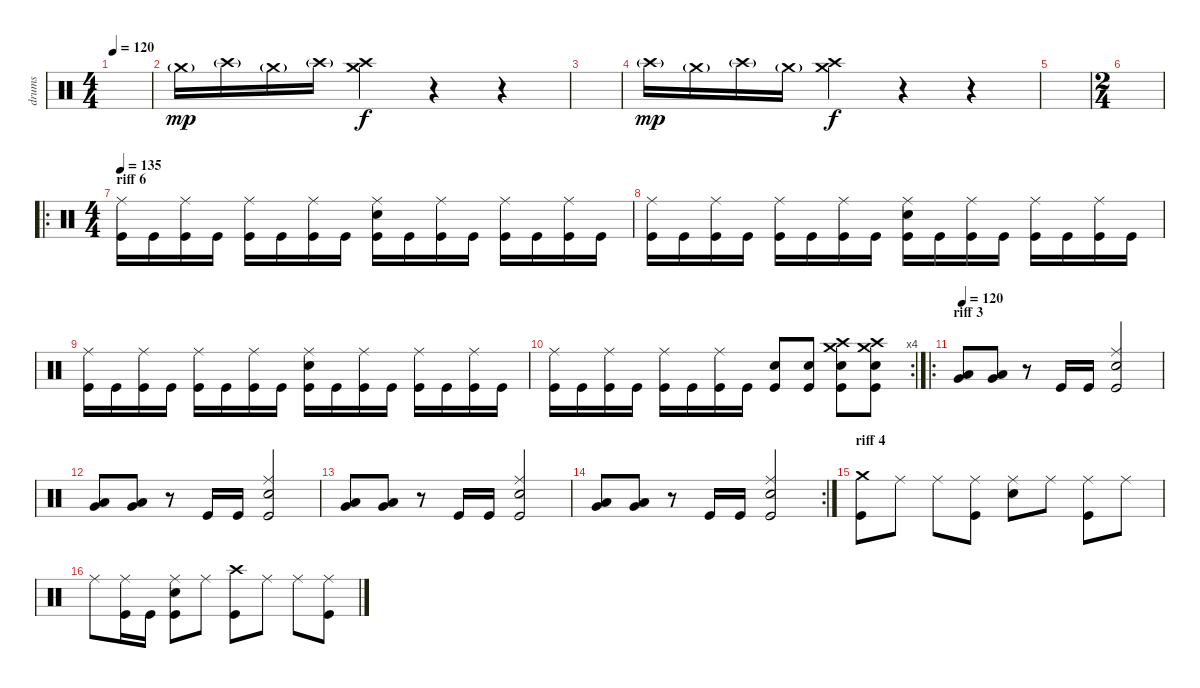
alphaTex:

\track ("drums" "drums") {instrument percussion}
\staff {score}
\articulation defaults
\ts (4 4)
\tempo 120
\clef neutral
\ks c
|
"Crash medium (hit)"{g}.16{dy mp} "Crash high (hit)"{g}.16 "Crash medium (hit)"{g}.16 "Crash high (hit)"{g}.16 ("Crash medium (hit)" "Crash high (hit)").4{dy f} r.4 r.4 |
|
"Crash high (hit)"{g}.16{dy mp} "Crash medium (hit)"{g}.16 "Crash high (hit)"{g}.16 "Crash medium (hit)"{g}.16 ("Crash medium (hit)" "Crash high (hit)").4{dy f} r.4 r.4 |
|
\ts (2 4)
|
\ro
\ts (4 4)
\section ("" "riff 6")
\tempo 135
("Kick (hit)" "Ride (middle)").16 "Kick (hit)".16 ("Kick (hit)" "Ride (middle)").16 "Kick (hit)".16 ("Kick (hit)" "Ride (middle)").16 "Kick (hit)".16 ("Kick (hit)" "Ride (middle)").16 "Kick (hit)".16 ("Kick (hit)" "Snare (hit) 2" "Ride (middle)").16 "Kick (hit)".16 ("Kick (hit)" "Ride (middle)").16 "Kick (hit)".16 ("Kick (hit)" "Ride (middle)").16 "Kick (hit)".16 ("Kick (hit)" "Ride (middle)").16 "Kick (hit)".16 |
("Kick (hit)" "Ride (middle)").16 "Kick (hit)".16 ("Kick (hit)" "Ride (middle)").16 "Kick (hit)".16 ("Kick (hit)" "Ride (middle)").16 "Kick (hit)".16 ("Kick (hit)" "Ride (middle)").16 "Kick (hit)".16 ("Kick (hit)" "Snare (hit) 2" "Ride (middle)").16 "Kick (hit)".16 ("Kick (hit)" "Ride (middle)").16 "Kick (hit)".16 ("Kick (hit)" "Ride (middle)").16 "Kick (hit)".16 ("Kick (hit)" "Ride (middle)").16 "Kick (hit)".16 |
("Kick (hit)" "Ride (middle)").16 "Kick (hit)".16 ("Kick (hit)" "Ride (middle)").16 "Kick (hit)".16 ("Kick (hit)" "Ride (middle)").16 "Kick (hit)".16 ("Kick (hit)" "Ride (middle)").16 "Kick (hit)".16 ("Kick (hit)" "Snare (hit) 2" "Ride (middle)").16 "Kick (hit)".16 ("Kick (hit)" "Ride (middle)").16 "Kick (hit)".16 ("Kick (hit)" "Ride (middle)").16 "Kick (hit)".16 ("Kick (hit)" "Ride (middle)").16 "Kick (hit)".16 |
\rc 4
("Kick (hit)" "Ride (middle)").16 "Kick (hit)".16 ("Kick (hit)" "Ride (middle)").16 "Kick (hit)".16 ("Kick (hit)" "Ride (middle)").16 "Kick (hit)".16 ("Kick (hit)" "Ride (middle)").16 "Kick (hit)".16 ("Kick (hit)" "Snare (hit) 2").8 ("Kick (hit)" "Snare (hit) 2").8 ("Kick (hit)" "Snare (hit) 2" "Crash high (hit)" "Crash medium (hit)").8 ("Kick (hit)" "Snare (hit) 2" "Crash high (hit)" "Crash medium (hit)").8 |
\ro
\section ("" "riff 3")
\tempo 120
("Low Tom (hit)" "Very Low Tom (hit)").8 ("Low Tom (hit)" "Very Low Tom (hit)").8 r.8 "Kick (hit)".16 "Kick (hit)".16 ("Kick (hit)" "Snare (hit) 2" "Ride (middle)").2 |
("Low Floor Tom (hit)" "Very Low Tom (hit)").8 ("Low Floor Tom (hit)" "Very Low Tom (hit)").8 r.8 "Kick (hit)".16 "Kick (hit)".16 ("Kick (hit)" "Snare (hit) 2" "Ride (middle)").2 |
("Low Tom (hit)" "Very Low Tom (hit)").8 ("Low Tom (hit)" "Very Low Tom (hit)").8 r.8 "Kick (hit)".16 "Kick (hit)".16 ("Kick (hit)" "Snare (hit) 2" "Ride (middle)").2 |
\rc 2
("Low Floor Tom (hit)" "Very Low Tom (hit)").8 ("Low Floor Tom (hit)" "Very Low Tom (hit)").8 r.8 "Kick (hit)".16 "Kick (hit)".16 ("Kick (hit)" "Snare (hit) 2" "Ride (middle)").2 |
\section ("" "riff 4")
("Kick (hit)" "Crash medium (hit)").8 "Ride (middle)".8 "Ride (middle)".8 ("Kick (hit)" "Ride (middle)").8 ("Snare (hit) 2" "Ride (middle)").8 "Ride (middle)".8 ("Kick (hit)" "Ride (middle)").8 "Ride (middle)".8 |
"Ride (middle)".8 ("Kick (hit)" "Ride (middle)").16 "Kick (hit)".16 ("Kick (hit)" "Snare (hit) 2" "Ride (middle)").8 "Ride (middle)".8 ("Kick (hit)" "Crash high (hit)").8 "Ride (middle)".8 "Ride (middle)".8 ("Kick (hit)" "Ride (middle)").8
